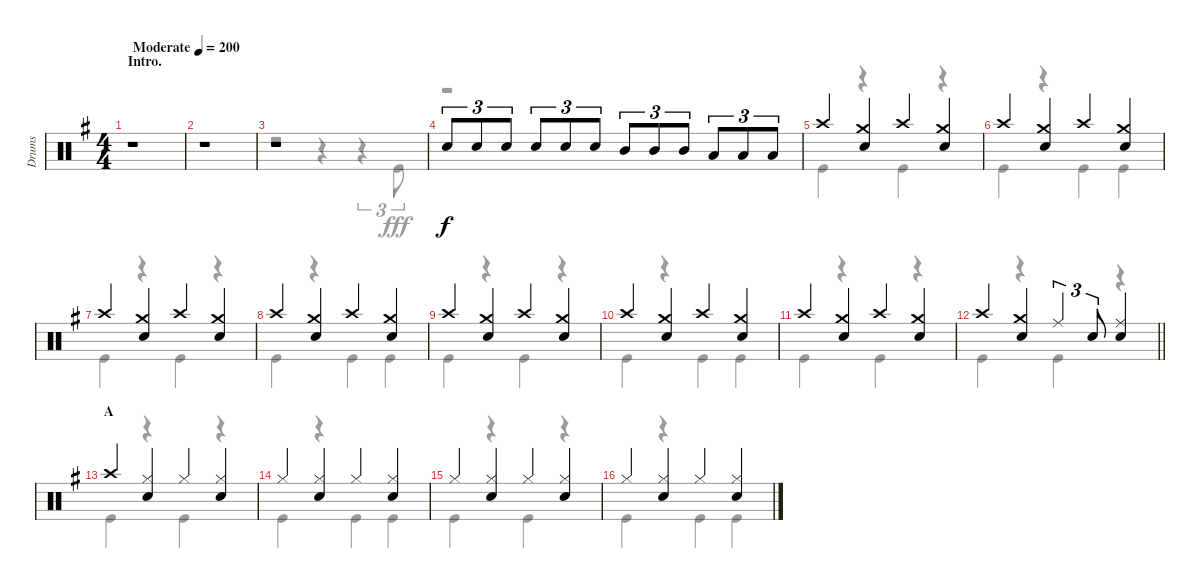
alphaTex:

\track ("Drums" "Drums") {instrument percussion}
\staff {score}
\articulation defaults
\voice
\ts (4 4)
\section ("" "Intro.")
\tempo (200 "Moderate")
\clef neutral
\ks g
r.1{dy f} |
r.1 |
r.1 |
"Snare (hit) 2".8{tu (3 2)} "Snare (hit) 2".8{tu (3 2)} "Snare (hit) 2".8{tu (3 2)} "Snare (hit) 2".8{tu (3 2)} "Snare (hit) 2".8{tu (3 2)} "Snare (hit) 2".8{tu (3 2)} "Mid Tom (hit)".8{tu (3 2)} "Mid Tom (hit)".8{tu (3 2)} "Mid Tom (hit)".8{tu (3 2)} "Low Tom (hit)".8{tu (3 2)} "Low Tom (hit)".8{tu (3 2)} "Low Tom (hit)".8{tu (3 2)} |
"Crash high (hit)".4 ("Crash medium (hit)" "Snare (hit) 2").4 "Crash high (hit)".4 ("Crash medium (hit)" "Snare (hit) 2").4 |
"Crash high (hit)".4 ("Crash medium (hit)" "Snare (hit) 2").4 "Crash high (hit)".4 ("Crash medium (hit)" "Snare (hit) 2").4 |
"Crash high (hit)".4 ("Crash medium (hit)" "Snare (hit) 2").4 "Crash high (hit)".4 ("Crash medium (hit)" "Snare (hit) 2").4 |
"Crash high (hit)".4 ("Crash medium (hit)" "Snare (hit) 2").4 "Crash high (hit)".4 ("Crash medium (hit)" "Snare (hit) 2").4 |
"Crash high (hit)".4 ("Crash medium (hit)" "Snare (hit) 2").4 "Crash high (hit)".4 ("Crash medium (hit)" "Snare (hit) 2").4 |
"Crash high (hit)".4 ("Crash medium (hit)" "Snare (hit) 2").4 "Crash high (hit)".4 ("Crash medium (hit)" "Snare (hit) 2").4 |
"Crash high (hit)".4 ("Crash medium (hit)" "Snare (hit) 2").4 "Crash high (hit)".4 ("Crash medium (hit)" "Snare (hit) 2").4 |
\barLineRight lightlight "Crash high (hit)".4
("Crash medium (hit)" "Snare (hit) 2").4 "Ride (middle)".4{tu (3 2)} "Snare (hit) 2".8{tu (3 2)} ("Ride (middle)" "Snare (hit) 2").4 |
\section ("" "A")
"Crash high (hit)".4 ("Hi-Hat (closed)" "Snare (hit) 2").4 "Hi-Hat (closed)".4 ("Hi-Hat (closed)" "Snare (hit) 2").4 |
"Hi-Hat (closed)".4 ("Hi-Hat (closed)" "Snare (hit) 2").4 "Hi-Hat (closed)".4 ("Hi-Hat (closed)" "Snare (hit) 2").4 |
"Hi-Hat (closed)".4 ("Hi-Hat (closed)" "Snare (hit) 2").4 "Hi-Hat (closed)".4 ("Hi-Hat (closed)" "Snare (hit) 2").4 |
"Hi-Hat (closed)".4 ("Hi-Hat (closed)" "Snare (hit) 2").4 "Hi-Hat (closed)".4 ("Hi-Hat (closed)" "Snare (hit) 2").4
\voice
\clef neutral
\ottava regular
\simile none
\ks g
r.1{dy fff} |
r.1 |
r.2 r.4 r.4{tu (3 2)} "Kick (hit)".8{tu (3 2)} |
r.1 |
"Kick (hit)".4 r.4 "Kick (hit)".4 r.4 |
"Kick (hit)".4 r.4 "Kick (hit)".4 "Kick (hit)".4 |
"Kick (hit)".4 r.4 "Kick (hit)".4 r.4 |
"Kick (hit)".4 r.4 "Kick (hit)".4 "Kick (hit)".4 |
"Kick (hit)".4 r.4 "Kick (hit)".4 r.4 |
"Kick (hit)".4 r.4 "Kick (hit)".4 "Kick (hit)".4 |
"Kick (hit)".4 r.4 "Kick (hit)".4 r.4 |
\barLineRight lightlight "Kick (hit)".4
r.4 "Kick (hit)".4 r.4 |
"Kick (hit)".4 r.4 "Kick (hit)".4 r.4 |
"Kick (hit)".4 r.4 "Kick (hit)".4 "Kick (hit)".4 |
"Kick (hit)".4 r.4 "Kick (hit)".4 r.4 |
"Kick (hit)".4 r.4 "Kick (hit)".4 "Kick (hit)".4
